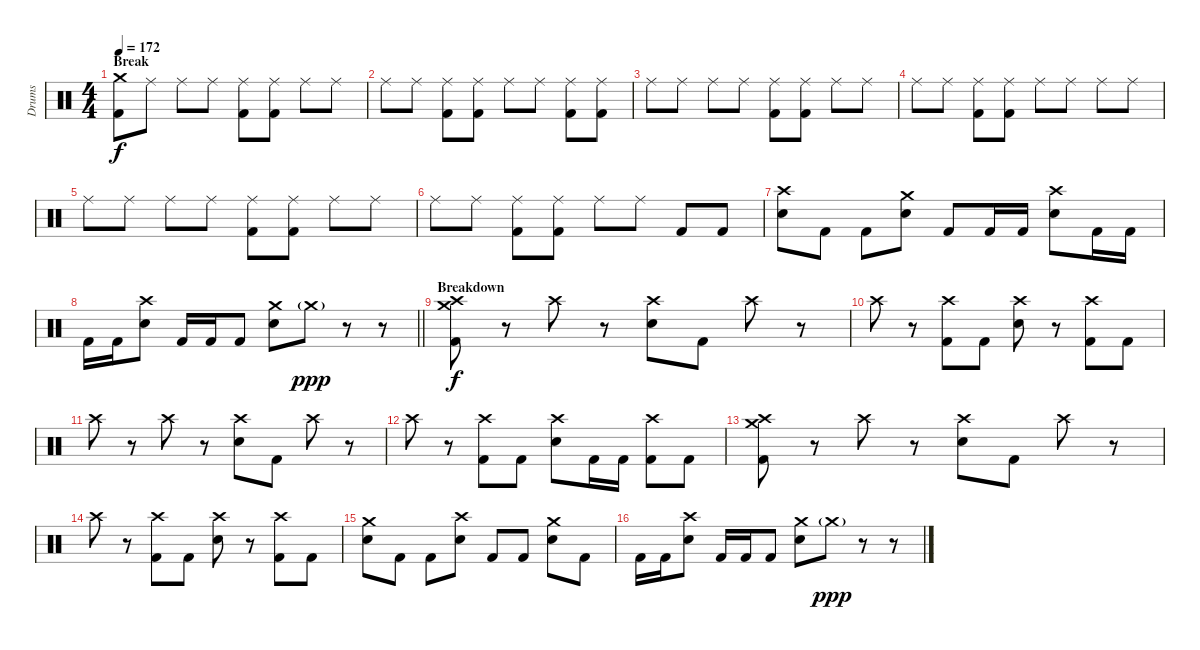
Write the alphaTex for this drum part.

\track ("Drums" "Drums") {instrument percussion}
\staff {score}
\articulation defaults
\ts (4 4)
\section ("" "Break")
\tempo 172
\clef neutral
\ks c
("Crash medium (hit)" "Kick (hit) 2").8{dy f} "Ride (middle)".8 "Ride (middle)".8 "Ride (middle)".8 ("Ride (middle)" "Kick (hit) 2").8 ("Ride (middle)" "Kick (hit) 2").8 "Ride (middle)".8 "Ride (middle)".8 |
"Ride (middle)".8 "Ride (middle)".8 ("Ride (middle)" "Kick (hit) 2").8 ("Ride (middle)" "Kick (hit) 2").8 "Ride (middle)".8 "Ride (middle)".8 ("Ride (middle)" "Kick (hit) 2").8 ("Ride (middle)" "Kick (hit) 2").8 |
"Ride (middle)".8 "Ride (middle)".8 "Ride (middle)".8 "Ride (middle)".8 ("Ride (middle)" "Kick (hit) 2").8 ("Ride (middle)" "Kick (hit) 2").8 "Ride (middle)".8 "Ride (middle)".8 |
"Ride (middle)".8 "Ride (middle)".8 ("Ride (middle)" "Kick (hit) 2").8 ("Ride (middle)" "Kick (hit) 2").8 "Ride (middle)".8 "Ride (middle)".8 "Ride (middle)".8 "Ride (middle)".8 |
"Ride (middle)".8 "Ride (middle)".8 "Ride (middle)".8 "Ride (middle)".8 ("Ride (middle)" "Kick (hit) 2").8 ("Ride (middle)" "Kick (hit) 2").8 "Ride (middle)".8 "Ride (middle)".8 |
"Ride (middle)".8 "Ride (middle)".8 ("Ride (middle)" "Kick (hit) 2").8 ("Ride (middle)" "Kick (hit) 2").8 "Ride (middle)".8 "Ride (middle)".8 "Kick (hit) 2".8 "Kick (hit) 2".8 |
("Crash high (hit)" "Electric Snare (hit)").8 "Kick (hit) 2".8 "Kick (hit) 2".8 ("Crash medium (hit)" "Electric Snare (hit)").8 "Kick (hit) 2".8 "Kick (hit) 2".16 "Kick (hit) 2".16 ("Crash high (hit)" "Electric Snare (hit)").8 "Kick (hit) 2".16 "Kick (hit) 2".16 |
\barLineRight lightlight "Kick (hit) 2".16 "Kick (hit) 2".16
("Crash high (hit)" "Electric Snare (hit)").8 "Kick (hit) 2".16 "Kick (hit) 2".16 "Kick (hit) 2".8 ("Crash medium (hit)" "Electric Snare (hit)").8 "Crash medium (hit)"{g}.8{dy ppp} r.8 r.8 |
\section ("" "Breakdown")
("Crash high (hit)" "Crash medium (hit)" "Kick (hit) 2").8{dy f} r.8 "Crash high (hit)".8 r.8 ("Crash high (hit)" "Electric Snare (hit)").8 "Kick (hit) 2".8 "Crash high (hit)".8 r.8 |
"Crash high (hit)".8 r.8 ("Crash high (hit)" "Kick (hit) 2").8 "Kick (hit) 2".8 ("Crash high (hit)" "Electric Snare (hit)").8 r.8 ("Crash high (hit)" "Kick (hit) 2").8 "Kick (hit) 2".8 |
"Crash high (hit)".8 r.8 "Crash high (hit)".8 r.8 ("Crash high (hit)" "Electric Snare (hit)").8 "Kick (hit) 2".8 "Crash high (hit)".8 r.8 |
"Crash high (hit)".8 r.8 ("Crash high (hit)" "Kick (hit) 2").8 "Kick (hit) 2".8 ("Crash high (hit)" "Electric Snare (hit)").8 "Kick (hit) 2".16 "Kick (hit) 2".16 ("Crash high (hit)" "Kick (hit) 2").8 "Kick (hit) 2".8 |
("Crash high (hit)" "Crash medium (hit)" "Kick (hit) 2").8 r.8 "Crash high (hit)".8 r.8 ("Crash high (hit)" "Electric Snare (hit)").8 "Kick (hit) 2".8 "Crash high (hit)".8 r.8 |
"Crash high (hit)".8 r.8 ("Crash high (hit)" "Kick (hit) 2").8 "Kick (hit) 2".8 ("Crash high (hit)" "Electric Snare (hit)").8 r.8 ("Crash high (hit)" "Kick (hit) 2").8 "Kick (hit) 2".8 |
("Crash medium (hit)" "Electric Snare (hit)").8 "Kick (hit) 2".8 "Kick (hit) 2".8 ("Crash high (hit)" "Electric Snare (hit)").8 "Kick (hit) 2".8 "Kick (hit) 2".8 ("Crash medium (hit)" "Electric Snare (hit)").8 "Kick (hit) 2".8 |
"Kick (hit) 2".16 "Kick (hit) 2".16 ("Crash high (hit)" "Electric Snare (hit)").8 "Kick (hit) 2".16 "Kick (hit) 2".16 "Kick (hit) 2".8 ("Crash medium (hit)" "Electric Snare (hit)").8 "Crash medium (hit)"{g}.8{dy ppp} r.8 r.8
